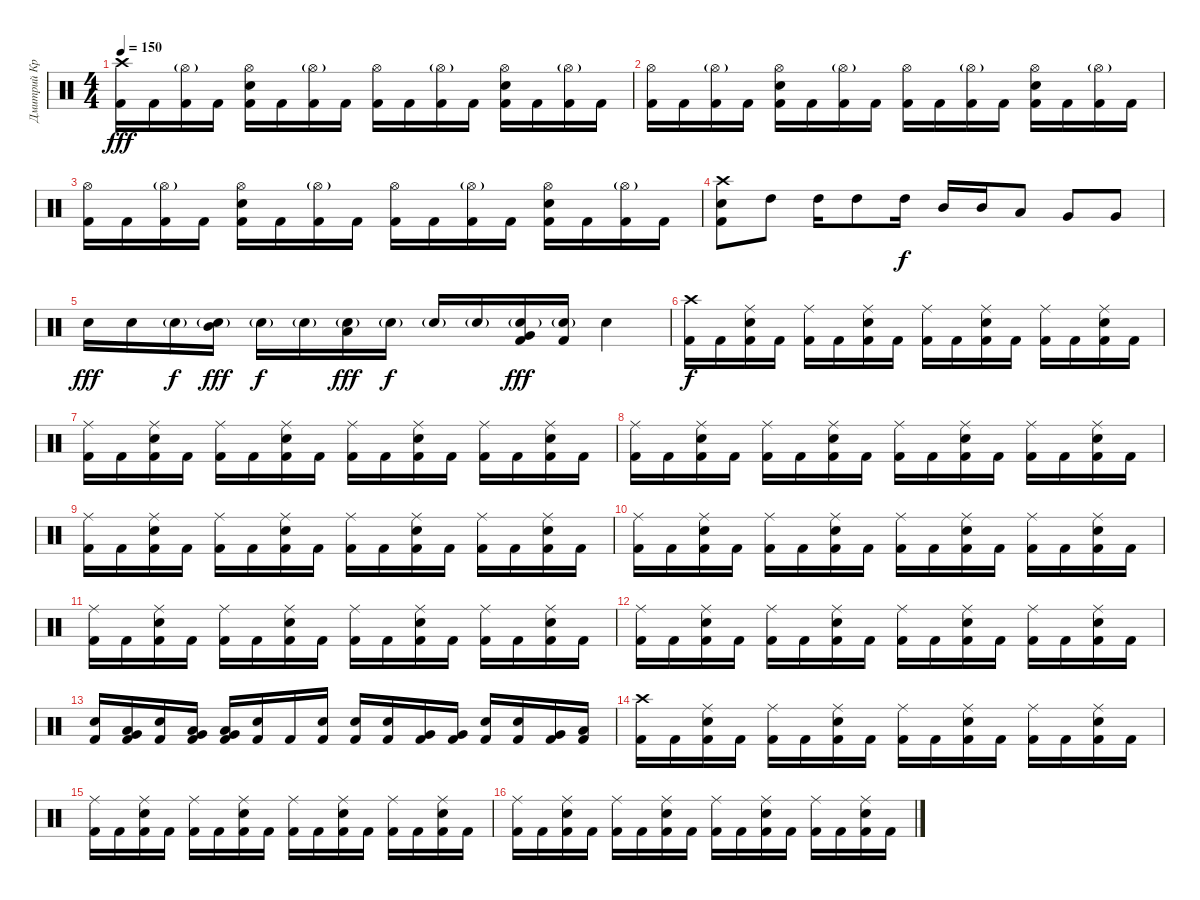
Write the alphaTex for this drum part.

\track ("Дмитрий Кривенков" "Дмитрий Кр") {instrument percussion}
\staff {score}
\articulation defaults
\ts (4 4)
\tempo 150
\clef neutral
\ks c
("Crash high (hit)" "Kick (hit) 2").16{dy fff} "Kick (hit) 2".16 ("Hi-Hat (open)"{g} "Kick (hit) 2").16 "Kick (hit) 2".16 ("Hi-Hat (open)" "Electric Snare (hit)" "Kick (hit) 2").16 "Kick (hit) 2".16 ("Hi-Hat (open)"{g} "Kick (hit) 2").16 "Kick (hit) 2".16 ("Hi-Hat (open)" "Kick (hit) 2").16 "Kick (hit) 2".16 ("Hi-Hat (open)"{g} "Kick (hit) 2").16 "Kick (hit) 2".16 ("Hi-Hat (open)" "Electric Snare (hit)" "Kick (hit) 2").16 "Kick (hit) 2".16 ("Hi-Hat (open)"{g} "Kick (hit) 2").16 "Kick (hit) 2".16 |
("Hi-Hat (open)" "Kick (hit) 2").16 "Kick (hit) 2".16 ("Hi-Hat (open)"{g} "Kick (hit) 2").16 "Kick (hit) 2".16 ("Hi-Hat (open)" "Electric Snare (hit)" "Kick (hit) 2").16 "Kick (hit) 2".16 ("Hi-Hat (open)"{g} "Kick (hit) 2").16 "Kick (hit) 2".16 ("Hi-Hat (open)" "Kick (hit) 2").16 "Kick (hit) 2".16 ("Hi-Hat (open)"{g} "Kick (hit) 2").16 "Kick (hit) 2".16 ("Hi-Hat (open)" "Electric Snare (hit)" "Kick (hit) 2").16 "Kick (hit) 2".16 ("Hi-Hat (open)"{g} "Kick (hit) 2").16 "Kick (hit) 2".16 |
("Hi-Hat (open)" "Kick (hit) 2").16 "Kick (hit) 2".16 ("Hi-Hat (open)"{g} "Kick (hit) 2").16 "Kick (hit) 2".16 ("Hi-Hat (open)" "Electric Snare (hit)" "Kick (hit) 2").16 "Kick (hit) 2".16 ("Hi-Hat (open)"{g} "Kick (hit) 2").16 "Kick (hit) 2".16 ("Hi-Hat (open)" "Kick (hit) 2").16 "Kick (hit) 2".16 ("Hi-Hat (open)"{g} "Kick (hit) 2").16 "Kick (hit) 2".16 ("Hi-Hat (open)" "Electric Snare (hit)" "Kick (hit) 2").16 "Kick (hit) 2".16 ("Hi-Hat (open)"{g} "Kick (hit) 2").16 "Kick (hit) 2".16 |
("Crash high (hit)" "Electric Snare (hit)" "Kick (hit) 2").8 "High Tom (hit)".8 "High Tom (hit)".16 "High Tom (hit)".8 "High Tom (hit)".16{dy f} "Mid Tom (hit)".16 "Mid Tom (hit)".16 "Low Tom (hit)".8 "Very Low Tom (hit)".8 "Very Low Tom (hit)".8 |
"Electric Snare (hit)".16{dy fff} "Electric Snare (hit)".16 "Electric Snare (hit)"{g}.16{dy f} ("Mid Tom (hit)" "Electric Snare (hit)"{g}).16{dy fff} "Electric Snare (hit)"{g}.16{dy f} "Electric Snare (hit)"{g}.16 ("Low Tom (hit)" "Electric Snare (hit)"{g}).16{dy fff} "Electric Snare (hit)"{g}.16{dy f} "Electric Snare (hit)"{g}.16 "Electric Snare (hit)"{g}.16 ("Electric Snare (hit)"{g} "Very Low Tom (hit)" "Kick (hit) 2").16{dy fff} ("Electric Snare (hit)"{g} "Kick (hit) 2").16 "Electric Snare (hit)".4 |
("Crash high (hit)" "Kick (hit) 2").16{dy f} "Kick (hit) 2".16 ("Ride (middle)" "Electric Snare (hit)" "Kick (hit) 2").16 "Kick (hit) 2".16 ("Ride (middle)" "Kick (hit) 2").16 "Kick (hit) 2".16 ("Ride (middle)" "Electric Snare (hit)" "Kick (hit) 2").16 "Kick (hit) 2".16 ("Ride (middle)" "Kick (hit) 2").16 "Kick (hit) 2".16 ("Ride (middle)" "Electric Snare (hit)" "Kick (hit) 2").16 "Kick (hit) 2".16 ("Ride (middle)" "Kick (hit) 2").16 "Kick (hit) 2".16 ("Ride (middle)" "Electric Snare (hit)" "Kick (hit) 2").16 "Kick (hit) 2".16 |
("Ride (middle)" "Kick (hit) 2").16 "Kick (hit) 2".16 ("Ride (middle)" "Electric Snare (hit)" "Kick (hit) 2").16 "Kick (hit) 2".16 ("Ride (middle)" "Kick (hit) 2").16 "Kick (hit) 2".16 ("Ride (middle)" "Electric Snare (hit)" "Kick (hit) 2").16 "Kick (hit) 2".16 ("Ride (middle)" "Kick (hit) 2").16 "Kick (hit) 2".16 ("Ride (middle)" "Electric Snare (hit)" "Kick (hit) 2").16 "Kick (hit) 2".16 ("Ride (middle)" "Kick (hit) 2").16 "Kick (hit) 2".16 ("Ride (middle)" "Electric Snare (hit)" "Kick (hit) 2").16 "Kick (hit) 2".16 |
("Ride (middle)" "Kick (hit) 2").16 "Kick (hit) 2".16 ("Ride (middle)" "Electric Snare (hit)" "Kick (hit) 2").16 "Kick (hit) 2".16 ("Ride (middle)" "Kick (hit) 2").16 "Kick (hit) 2".16 ("Ride (middle)" "Electric Snare (hit)" "Kick (hit) 2").16 "Kick (hit) 2".16 ("Ride (middle)" "Kick (hit) 2").16 "Kick (hit) 2".16 ("Ride (middle)" "Electric Snare (hit)" "Kick (hit) 2").16 "Kick (hit) 2".16 ("Ride (middle)" "Kick (hit) 2").16 "Kick (hit) 2".16 ("Ride (middle)" "Electric Snare (hit)" "Kick (hit) 2").16 "Kick (hit) 2".16 |
("Ride (middle)" "Kick (hit) 2").16 "Kick (hit) 2".16 ("Ride (middle)" "Electric Snare (hit)" "Kick (hit) 2").16 "Kick (hit) 2".16 ("Ride (middle)" "Kick (hit) 2").16 "Kick (hit) 2".16 ("Ride (middle)" "Electric Snare (hit)" "Kick (hit) 2").16 "Kick (hit) 2".16 ("Ride (middle)" "Kick (hit) 2").16 "Kick (hit) 2".16 ("Ride (middle)" "Electric Snare (hit)" "Kick (hit) 2").16 "Kick (hit) 2".16 ("Ride (middle)" "Kick (hit) 2").16 "Kick (hit) 2".16 ("Ride (middle)" "Electric Snare (hit)" "Kick (hit) 2").16 "Kick (hit) 2".16 |
("Ride (middle)" "Kick (hit) 2").16 "Kick (hit) 2".16 ("Ride (middle)" "Electric Snare (hit)" "Kick (hit) 2").16 "Kick (hit) 2".16 ("Ride (middle)" "Kick (hit) 2").16 "Kick (hit) 2".16 ("Ride (middle)" "Electric Snare (hit)" "Kick (hit) 2").16 "Kick (hit) 2".16 ("Ride (middle)" "Kick (hit) 2").16 "Kick (hit) 2".16 ("Ride (middle)" "Electric Snare (hit)" "Kick (hit) 2").16 "Kick (hit) 2".16 ("Ride (middle)" "Kick (hit) 2").16 "Kick (hit) 2".16 ("Ride (middle)" "Electric Snare (hit)" "Kick (hit) 2").16 "Kick (hit) 2".16 |
("Ride (middle)" "Kick (hit) 2").16 "Kick (hit) 2".16 ("Ride (middle)" "Electric Snare (hit)" "Kick (hit) 2").16 "Kick (hit) 2".16 ("Ride (middle)" "Kick (hit) 2").16 "Kick (hit) 2".16 ("Ride (middle)" "Electric Snare (hit)" "Kick (hit) 2").16 "Kick (hit) 2".16 ("Ride (middle)" "Kick (hit) 2").16 "Kick (hit) 2".16 ("Ride (middle)" "Electric Snare (hit)" "Kick (hit) 2").16 "Kick (hit) 2".16 ("Ride (middle)" "Kick (hit) 2").16 "Kick (hit) 2".16 ("Ride (middle)" "Electric Snare (hit)" "Kick (hit) 2").16 "Kick (hit) 2".16 |
("Ride (middle)" "Kick (hit) 2").16 "Kick (hit) 2".16 ("Ride (middle)" "Electric Snare (hit)" "Kick (hit) 2").16 "Kick (hit) 2".16 ("Ride (middle)" "Kick (hit) 2").16 "Kick (hit) 2".16 ("Ride (middle)" "Electric Snare (hit)" "Kick (hit) 2").16 "Kick (hit) 2".16 ("Ride (middle)" "Kick (hit) 2").16 "Kick (hit) 2".16 ("Ride (middle)" "Electric Snare (hit)" "Kick (hit) 2").16 "Kick (hit) 2".16 ("Ride (middle)" "Kick (hit) 2").16 "Kick (hit) 2".16 ("Ride (middle)" "Electric Snare (hit)" "Kick (hit) 2").16 "Kick (hit) 2".16 |
("Electric Snare (hit)" "Kick (hit) 2").16 ("Very Low Tom (hit)" "Low Floor Tom (hit)" "Kick (hit) 2").16 ("Electric Snare (hit)" "Kick (hit) 2").16 ("Very Low Tom (hit)" "Low Floor Tom (hit)" "Kick (hit) 2").16 ("Very Low Tom (hit)" "Low Floor Tom (hit)" "Kick (hit) 2").16 ("Electric Snare (hit)" "Kick (hit) 2").16 "Kick (hit) 2".16 ("Electric Snare (hit)" "Kick (hit) 2").16 ("Electric Snare (hit)" "Kick (hit) 2").16 ("Electric Snare (hit)" "Kick (hit) 2").16 ("Very Low Tom (hit)" "Kick (hit) 2").16 ("Very Low Tom (hit)" "Kick (hit) 2").16 ("Electric Snare (hit)" "Kick (hit) 2").16 ("Electric Snare (hit)" "Kick (hit) 2").16 ("Very Low Tom (hit)" "Kick (hit) 2").16 ("Low Floor Tom (hit)" "Kick (hit) 2").16 |
("Crash high (hit)" "Kick (hit) 2").16 "Kick (hit) 2".16 ("Ride (middle)" "Electric Snare (hit)" "Kick (hit) 2").16 "Kick (hit) 2".16 ("Ride (middle)" "Kick (hit) 2").16 "Kick (hit) 2".16 ("Ride (middle)" "Electric Snare (hit)" "Kick (hit) 2").16 "Kick (hit) 2".16 ("Ride (middle)" "Kick (hit) 2").16 "Kick (hit) 2".16 ("Ride (middle)" "Electric Snare (hit)" "Kick (hit) 2").16 "Kick (hit) 2".16 ("Ride (middle)" "Kick (hit) 2").16 "Kick (hit) 2".16 ("Ride (middle)" "Electric Snare (hit)" "Kick (hit) 2").16 "Kick (hit) 2".16 |
("Ride (middle)" "Kick (hit) 2").16 "Kick (hit) 2".16 ("Ride (middle)" "Electric Snare (hit)" "Kick (hit) 2").16 "Kick (hit) 2".16 ("Ride (middle)" "Kick (hit) 2").16 "Kick (hit) 2".16 ("Ride (middle)" "Electric Snare (hit)" "Kick (hit) 2").16 "Kick (hit) 2".16 ("Ride (middle)" "Kick (hit) 2").16 "Kick (hit) 2".16 ("Ride (middle)" "Electric Snare (hit)" "Kick (hit) 2").16 "Kick (hit) 2".16 ("Ride (middle)" "Kick (hit) 2").16 "Kick (hit) 2".16 ("Ride (middle)" "Electric Snare (hit)" "Kick (hit) 2").16 "Kick (hit) 2".16 |
("Ride (middle)" "Kick (hit) 2").16 "Kick (hit) 2".16 ("Ride (middle)" "Electric Snare (hit)" "Kick (hit) 2").16 "Kick (hit) 2".16 ("Ride (middle)" "Kick (hit) 2").16 "Kick (hit) 2".16 ("Ride (middle)" "Electric Snare (hit)" "Kick (hit) 2").16 "Kick (hit) 2".16 ("Ride (middle)" "Kick (hit) 2").16 "Kick (hit) 2".16 ("Ride (middle)" "Electric Snare (hit)" "Kick (hit) 2").16 "Kick (hit) 2".16 ("Ride (middle)" "Kick (hit) 2").16 "Kick (hit) 2".16 ("Ride (middle)" "Electric Snare (hit)" "Kick (hit) 2").16 "Kick (hit) 2".16
